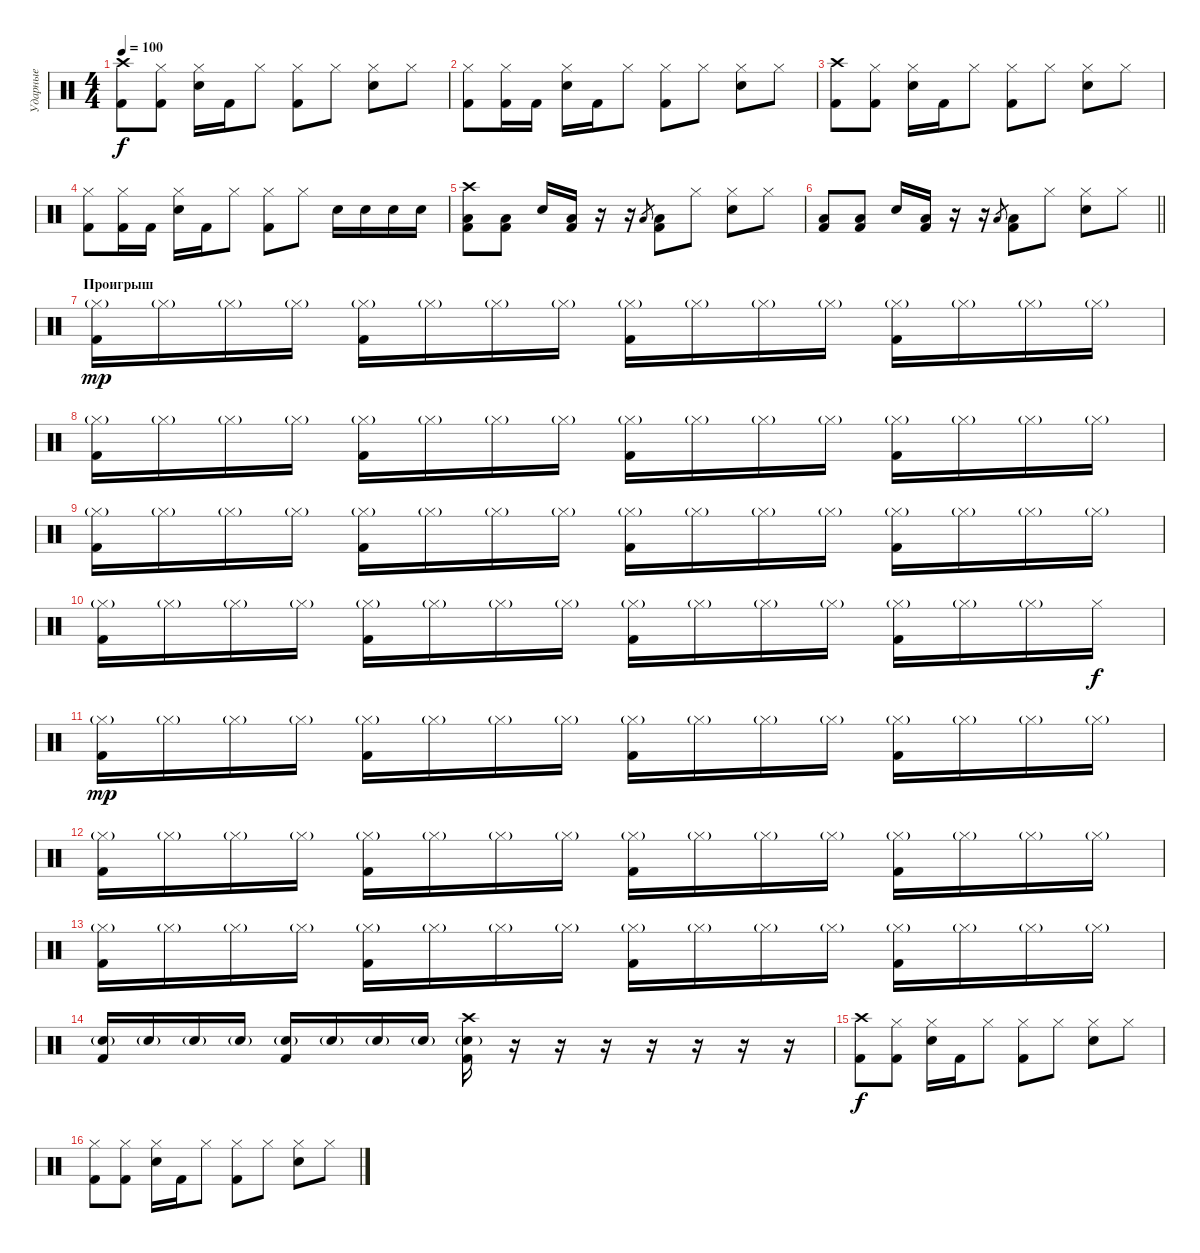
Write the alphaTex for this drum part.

\track ("Ударные" "Ударные") {instrument percussion}
\staff {score}
\articulation defaults
\ts (4 4)
\tempo 100
\clef neutral
\ks c
("Crash high (hit)" "Kick (hit) 2").8{dy f} ("Hi-Hat (closed)" "Kick (hit) 2").8 ("Hi-Hat (closed)" "Snare (hit) 2").16 "Kick (hit) 2".16 "Hi-Hat (closed)".8 ("Hi-Hat (closed)" "Kick (hit) 2").8 "Hi-Hat (closed)".8 ("Hi-Hat (closed)" "Snare (hit) 2").8 "Hi-Hat (closed)".8 |
("Hi-Hat (closed)" "Kick (hit) 2").8 ("Hi-Hat (closed)" "Kick (hit) 2").16 "Kick (hit) 2".16 ("Hi-Hat (closed)" "Snare (hit) 2").16 "Kick (hit) 2".16 "Hi-Hat (closed)".8 ("Hi-Hat (closed)" "Kick (hit) 2").8 "Hi-Hat (closed)".8 ("Hi-Hat (closed)" "Snare (hit) 2").8 "Hi-Hat (closed)".8 |
("Crash high (hit)" "Kick (hit) 2").8 ("Hi-Hat (closed)" "Kick (hit) 2").8 ("Hi-Hat (closed)" "Snare (hit) 2").16 "Kick (hit) 2".16 "Hi-Hat (closed)".8 ("Hi-Hat (closed)" "Kick (hit) 2").8 "Hi-Hat (closed)".8 ("Hi-Hat (closed)" "Snare (hit) 2").8 "Hi-Hat (closed)".8 |
("Hi-Hat (closed)" "Kick (hit) 2").8 ("Hi-Hat (closed)" "Kick (hit) 2").16 "Kick (hit) 2".16 ("Hi-Hat (closed)" "Snare (hit) 2").16 "Kick (hit) 2".16 "Hi-Hat (closed)".8 ("Hi-Hat (closed)" "Kick (hit) 2").8 "Hi-Hat (closed)".8 "Snare (hit) 2".16 "Snare (hit) 2".16 "Snare (hit) 2".16 "Snare (hit) 2".16 |
("Low Floor Tom (hit)" "Kick (hit) 2" "Crash high (hit)").8 ("Low Floor Tom (hit)" "Kick (hit) 2").8 "Snare (hit) 2".16 ("Low Floor Tom (hit)" "Kick (hit) 2").16 r.16 r.16 "Low Floor Tom (hit)".8{gr} ("Low Floor Tom (hit)" "Kick (hit) 2").8 "Hi-Hat (closed)".8 ("Hi-Hat (closed)" "Snare (hit) 2").8 "Hi-Hat (closed)".8 |
\barLineRight lightlight
("Low Floor Tom (hit)" "Kick (hit) 2").8 ("Low Floor Tom (hit)" "Kick (hit) 2").8 "Snare (hit) 2".16 ("Low Floor Tom (hit)" "Kick (hit) 2").16 r.16 r.16 "Low Floor Tom (hit)".8{gr} ("Low Floor Tom (hit)" "Kick (hit) 2").8 "Hi-Hat (closed)".8 ("Hi-Hat (closed)" "Snare (hit) 2").8 "Hi-Hat (closed)".8 |
\section ("" "Проигрыш")
("Kick (hit) 2" "Hi-Hat (closed)"{g}).16{dy mp} "Hi-Hat (closed)"{g}.16 "Hi-Hat (closed)"{g}.16 "Hi-Hat (closed)"{g}.16 ("Kick (hit) 2" "Hi-Hat (closed)"{g}).16 "Hi-Hat (closed)"{g}.16 "Hi-Hat (closed)"{g}.16 "Hi-Hat (closed)"{g}.16 ("Kick (hit) 2" "Hi-Hat (closed)"{g}).16 "Hi-Hat (closed)"{g}.16 "Hi-Hat (closed)"{g}.16 "Hi-Hat (closed)"{g}.16 ("Kick (hit) 2" "Hi-Hat (closed)"{g}).16 "Hi-Hat (closed)"{g}.16 "Hi-Hat (closed)"{g}.16 "Hi-Hat (closed)"{g}.16 |
("Kick (hit) 2" "Hi-Hat (closed)"{g}).16 "Hi-Hat (closed)"{g}.16 "Hi-Hat (closed)"{g}.16 "Hi-Hat (closed)"{g}.16 ("Kick (hit) 2" "Hi-Hat (closed)"{g}).16 "Hi-Hat (closed)"{g}.16 "Hi-Hat (closed)"{g}.16 "Hi-Hat (closed)"{g}.16 ("Kick (hit) 2" "Hi-Hat (closed)"{g}).16 "Hi-Hat (closed)"{g}.16 "Hi-Hat (closed)"{g}.16 "Hi-Hat (closed)"{g}.16 ("Kick (hit) 2" "Hi-Hat (closed)"{g}).16 "Hi-Hat (closed)"{g}.16 "Hi-Hat (closed)"{g}.16 "Hi-Hat (closed)"{g}.16 |
("Kick (hit) 2" "Hi-Hat (closed)"{g}).16 "Hi-Hat (closed)"{g}.16 "Hi-Hat (closed)"{g}.16 "Hi-Hat (closed)"{g}.16 ("Kick (hit) 2" "Hi-Hat (closed)"{g}).16 "Hi-Hat (closed)"{g}.16 "Hi-Hat (closed)"{g}.16 "Hi-Hat (closed)"{g}.16 ("Kick (hit) 2" "Hi-Hat (closed)"{g}).16 "Hi-Hat (closed)"{g}.16 "Hi-Hat (closed)"{g}.16 "Hi-Hat (closed)"{g}.16 ("Kick (hit) 2" "Hi-Hat (closed)"{g}).16 "Hi-Hat (closed)"{g}.16 "Hi-Hat (closed)"{g}.16 "Hi-Hat (closed)"{g}.16 |
("Kick (hit) 2" "Hi-Hat (closed)"{g}).16 "Hi-Hat (closed)"{g}.16 "Hi-Hat (closed)"{g}.16 "Hi-Hat (closed)"{g}.16 ("Kick (hit) 2" "Hi-Hat (closed)"{g}).16 "Hi-Hat (closed)"{g}.16 "Hi-Hat (closed)"{g}.16 "Hi-Hat (closed)"{g}.16 ("Kick (hit) 2" "Hi-Hat (closed)"{g}).16 "Hi-Hat (closed)"{g}.16 "Hi-Hat (closed)"{g}.16 "Hi-Hat (closed)"{g}.16 ("Kick (hit) 2" "Hi-Hat (closed)"{g}).16 "Hi-Hat (closed)"{g}.16 "Hi-Hat (closed)"{g}.16 "Hi-Hat (closed)".16{dy f} |
("Kick (hit) 2" "Hi-Hat (closed)"{g}).16{dy mp} "Hi-Hat (closed)"{g}.16 "Hi-Hat (closed)"{g}.16 "Hi-Hat (closed)"{g}.16 ("Kick (hit) 2" "Hi-Hat (closed)"{g}).16 "Hi-Hat (closed)"{g}.16 "Hi-Hat (closed)"{g}.16 "Hi-Hat (closed)"{g}.16 ("Kick (hit) 2" "Hi-Hat (closed)"{g}).16 "Hi-Hat (closed)"{g}.16 "Hi-Hat (closed)"{g}.16 "Hi-Hat (closed)"{g}.16 ("Kick (hit) 2" "Hi-Hat (closed)"{g}).16 "Hi-Hat (closed)"{g}.16 "Hi-Hat (closed)"{g}.16 "Hi-Hat (closed)"{g}.16 |
("Kick (hit) 2" "Hi-Hat (closed)"{g}).16 "Hi-Hat (closed)"{g}.16 "Hi-Hat (closed)"{g}.16 "Hi-Hat (closed)"{g}.16 ("Kick (hit) 2" "Hi-Hat (closed)"{g}).16 "Hi-Hat (closed)"{g}.16 "Hi-Hat (closed)"{g}.16 "Hi-Hat (closed)"{g}.16 ("Kick (hit) 2" "Hi-Hat (closed)"{g}).16 "Hi-Hat (closed)"{g}.16 "Hi-Hat (closed)"{g}.16 "Hi-Hat (closed)"{g}.16 ("Kick (hit) 2" "Hi-Hat (closed)"{g}).16 "Hi-Hat (closed)"{g}.16 "Hi-Hat (closed)"{g}.16 "Hi-Hat (closed)"{g}.16 |
("Kick (hit) 2" "Hi-Hat (closed)"{g}).16 "Hi-Hat (closed)"{g}.16 "Hi-Hat (closed)"{g}.16 "Hi-Hat (closed)"{g}.16 ("Kick (hit) 2" "Hi-Hat (closed)"{g}).16 "Hi-Hat (closed)"{g}.16 "Hi-Hat (closed)"{g}.16 "Hi-Hat (closed)"{g}.16 ("Kick (hit) 2" "Hi-Hat (closed)"{g}).16 "Hi-Hat (closed)"{g}.16 "Hi-Hat (closed)"{g}.16 "Hi-Hat (closed)"{g}.16 ("Kick (hit) 2" "Hi-Hat (closed)"{g}).16 "Hi-Hat (closed)"{g}.16 "Hi-Hat (closed)"{g}.16 "Hi-Hat (closed)"{g}.16 |
("Kick (hit) 2" "Snare (hit) 2"{g}).16 "Snare (hit) 2"{g}.16 "Snare (hit) 2"{g}.16 "Snare (hit) 2"{g}.16 ("Kick (hit) 2" "Snare (hit) 2"{g}).16 "Snare (hit) 2"{g}.16 "Snare (hit) 2"{g}.16 "Snare (hit) 2"{g}.16 ("Crash high (hit)" "Snare (hit) 2"{g} "Kick (hit) 2").16 r.16 r.16 r.16 r.16 r.16 r.16 r.16 |
("Crash high (hit)" "Kick (hit) 2").8{dy f} ("Hi-Hat (closed)" "Kick (hit) 2").8 ("Hi-Hat (closed)" "Snare (hit) 2").16 "Kick (hit) 2".16 "Hi-Hat (closed)".8 ("Hi-Hat (closed)" "Kick (hit) 2").8 "Hi-Hat (closed)".8 ("Hi-Hat (closed)" "Snare (hit) 2").8 "Hi-Hat (closed)".8 |
("Hi-Hat (closed)" "Kick (hit) 2").8 ("Hi-Hat (closed)" "Kick (hit) 2").8 ("Hi-Hat (closed)" "Snare (hit) 2").16 "Kick (hit) 2".16 "Hi-Hat (closed)".8 ("Hi-Hat (closed)" "Kick (hit) 2").8 "Hi-Hat (closed)".8 ("Hi-Hat (closed)" "Snare (hit) 2").8 "Hi-Hat (closed)".8
